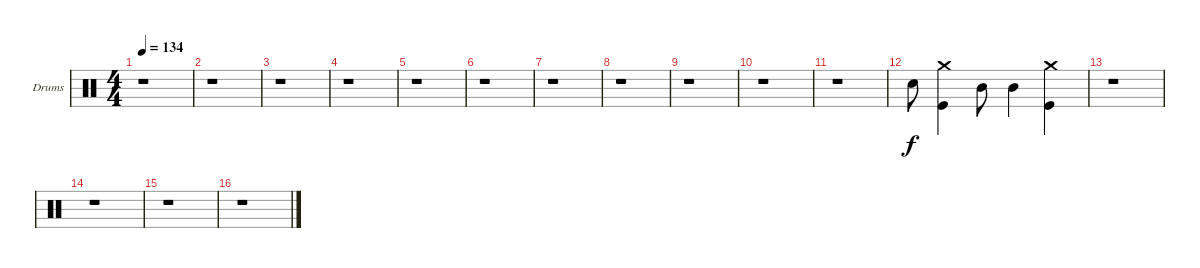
\defaultSystemsLayout 4
\bracketExtendMode groupsimilarinstruments
\firstSystemTrackNameOrientation horizontal
\otherSystemsTrackNameOrientation horizontal
\track ("Drumkit" "Drums") {instrument percussion}
\staff {score}
\articulation defaults
\ts (4 4)
\tempo 134
\clef neutral
\ks c
r.1{dy f} |
r.1 |
r.1 |
r.1 |
r.1 |
r.1 |
r.1 |
r.1 |
r.1 |
r.1 |
r.1 |
"Snare (hit) 2".8 ("Kick (hit)" "Crash medium (hit)").4 "Mid Tom (hit)".8 "Mid Tom (hit)".4 ("Kick (hit)" "Crash medium (hit)").4 |
r.1 |
r.1 |
r.1 |
r.1
